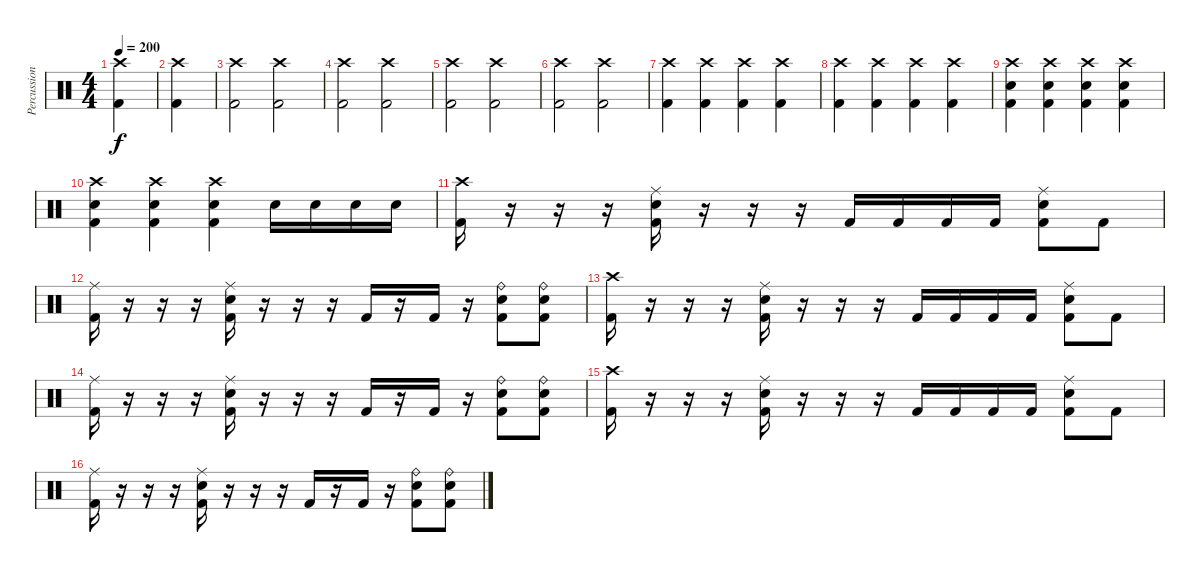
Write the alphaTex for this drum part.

\track ("Percussions" "Percussion") {instrument percussion}
\staff {score}
\articulation defaults
\ts (4 4)
\tempo 200
\clef neutral
\ks c
("Crash high (hit)" "Kick (hit) 2").4{dy f} |
("Crash high (hit)" "Kick (hit) 2").4 |
("Crash high (hit)" "Kick (hit) 2").2 ("Crash high (hit)" "Kick (hit) 2").2 |
("Crash high (hit)" "Kick (hit) 2").2 ("Crash high (hit)" "Kick (hit) 2").2 |
("Crash high (hit)" "Kick (hit) 2").2 ("Crash high (hit)" "Kick (hit) 2").2 |
("Crash high (hit)" "Kick (hit) 2").2 ("Crash high (hit)" "Kick (hit) 2").2 |
("Crash high (hit)" "Kick (hit) 2").4 ("Crash high (hit)" "Kick (hit) 2").4 ("Crash high (hit)" "Kick (hit) 2").4 ("Crash high (hit)" "Kick (hit) 2").4 |
("Crash high (hit)" "Kick (hit) 2").4 ("Crash high (hit)" "Kick (hit) 2").4 ("Crash high (hit)" "Kick (hit) 2").4 ("Crash high (hit)" "Kick (hit) 2").4 |
("Crash high (hit)" "Snare (hit) 2" "Kick (hit) 2").4 ("Crash high (hit)" "Snare (hit) 2" "Kick (hit) 2").4 ("Crash high (hit)" "Snare (hit) 2" "Kick (hit) 2").4 ("Crash high (hit)" "Snare (hit) 2" "Kick (hit) 2").4 |
("Crash high (hit)" "Snare (hit) 2" "Kick (hit) 2").4 ("Crash high (hit)" "Snare (hit) 2" "Kick (hit) 2").4 ("Crash high (hit)" "Snare (hit) 2" "Kick (hit) 2").4 "Snare (hit) 2".16 "Snare (hit) 2".16 "Snare (hit) 2".16 "Snare (hit) 2".16 |
("Crash high (hit)" "Kick (hit) 2").16 r.16 r.16 r.16 ("Ride (middle)" "Snare (hit) 2" "Kick (hit) 2").16 r.16 r.16 r.16 "Kick (hit) 2".16 "Kick (hit) 2".16 "Kick (hit) 2".16 "Kick (hit) 2".16 ("Ride (middle)" "Snare (hit) 2" "Kick (hit) 2").8 "Kick (hit) 2".8 |
("Ride (middle)" "Kick (hit) 2").16 r.16 r.16 r.16 ("Ride (middle)" "Snare (hit) 2" "Kick (hit) 2").16 r.16 r.16 r.16 "Kick (hit) 2".16 r.16 "Kick (hit) 2".16 r.16 ("Ride (bell)" "Snare (hit) 2" "Kick (hit) 2").8 ("Ride (bell)" "Snare (hit) 2" "Kick (hit) 2").8 |
("Crash high (hit)" "Kick (hit) 2").16 r.16 r.16 r.16 ("Ride (middle)" "Snare (hit) 2" "Kick (hit) 2").16 r.16 r.16 r.16 "Kick (hit) 2".16 "Kick (hit) 2".16 "Kick (hit) 2".16 "Kick (hit) 2".16 ("Ride (middle)" "Snare (hit) 2" "Kick (hit) 2").8 "Kick (hit) 2".8 |
("Ride (middle)" "Kick (hit) 2").16 r.16 r.16 r.16 ("Ride (middle)" "Snare (hit) 2" "Kick (hit) 2").16 r.16 r.16 r.16 "Kick (hit) 2".16 r.16 "Kick (hit) 2".16 r.16 ("Ride (bell)" "Snare (hit) 2" "Kick (hit) 2").8 ("Ride (bell)" "Snare (hit) 2" "Kick (hit) 2").8 |
("Crash high (hit)" "Kick (hit) 2").16 r.16 r.16 r.16 ("Ride (middle)" "Snare (hit) 2" "Kick (hit) 2").16 r.16 r.16 r.16 "Kick (hit) 2".16 "Kick (hit) 2".16 "Kick (hit) 2".16 "Kick (hit) 2".16 ("Ride (middle)" "Snare (hit) 2" "Kick (hit) 2").8 "Kick (hit) 2".8 |
("Ride (middle)" "Kick (hit) 2").16 r.16 r.16 r.16 ("Ride (middle)" "Snare (hit) 2" "Kick (hit) 2").16 r.16 r.16 r.16 "Kick (hit) 2".16 r.16 "Kick (hit) 2".16 r.16 ("Ride (bell)" "Snare (hit) 2" "Kick (hit) 2").8 ("Ride (bell)" "Snare (hit) 2" "Kick (hit) 2").8
